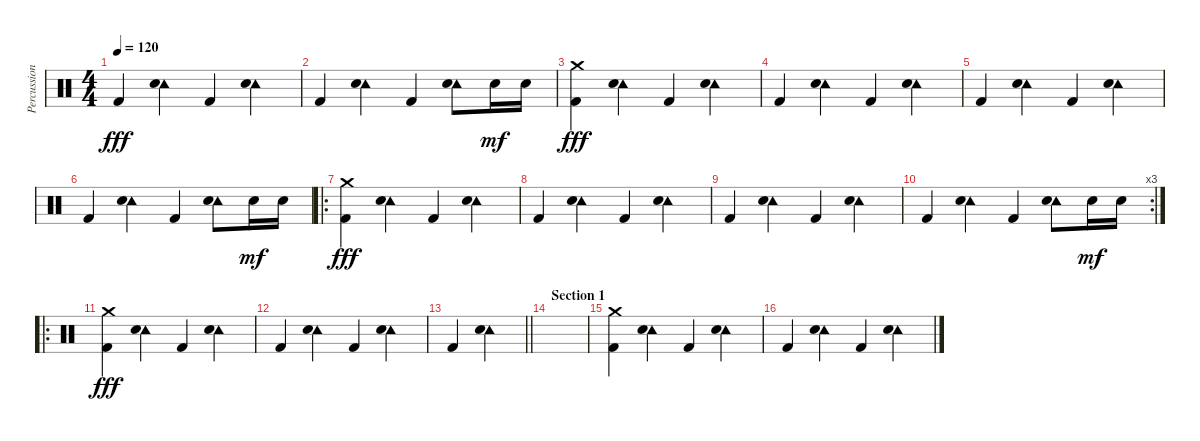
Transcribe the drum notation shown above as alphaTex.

\track ("Percussion" "Percussion") {instrument percussion}
\staff {score}
\articulation defaults
\ts (4 4)
\tempo 120
\clef neutral
\ks c "Kick (hit) 2".4{dy fff}
("Tambourine (hit)" "Electric Snare (hit)").4 "Kick (hit) 2".4 ("Tambourine (hit)" "Electric Snare (hit)").4 |
"Kick (hit) 2".4 ("Tambourine (hit)" "Electric Snare (hit)").4 "Kick (hit) 2".4 ("Tambourine (hit)" "Electric Snare (hit)").8 "Electric Snare (hit)".16{dy mf} "Electric Snare (hit)".16 |
("Crash medium (hit)" "Kick (hit) 2").4{dy fff} ("Tambourine (hit)" "Electric Snare (hit)").4 "Kick (hit) 2".4 ("Tambourine (hit)" "Electric Snare (hit)").4 |
"Kick (hit) 2".4 ("Tambourine (hit)" "Electric Snare (hit)").4 "Kick (hit) 2".4 ("Tambourine (hit)" "Electric Snare (hit)").4 |
"Kick (hit) 2".4 ("Tambourine (hit)" "Electric Snare (hit)").4 "Kick (hit) 2".4 ("Tambourine (hit)" "Electric Snare (hit)").4 |
"Kick (hit) 2".4 ("Tambourine (hit)" "Electric Snare (hit)").4 "Kick (hit) 2".4 ("Tambourine (hit)" "Electric Snare (hit)").8 "Electric Snare (hit)".16{dy mf} "Electric Snare (hit)".16 |
\ro
("Crash medium (hit)" "Kick (hit) 2").4{dy fff} ("Tambourine (hit)" "Electric Snare (hit)").4 "Kick (hit) 2".4 ("Tambourine (hit)" "Electric Snare (hit)").4 |
"Kick (hit) 2".4 ("Tambourine (hit)" "Electric Snare (hit)").4 "Kick (hit) 2".4 ("Tambourine (hit)" "Electric Snare (hit)").4 |
"Kick (hit) 2".4 ("Tambourine (hit)" "Electric Snare (hit)").4 "Kick (hit) 2".4 ("Tambourine (hit)" "Electric Snare (hit)").4 |
\rc 3 "Kick (hit) 2".4
("Tambourine (hit)" "Electric Snare (hit)").4 "Kick (hit) 2".4 ("Tambourine (hit)" "Electric Snare (hit)").8 "Electric Snare (hit)".16{dy mf} "Electric Snare (hit)".16 |
\ro
("Crash medium (hit)" "Kick (hit) 2").4{dy fff} ("Tambourine (hit)" "Electric Snare (hit)").4 "Kick (hit) 2".4 ("Tambourine (hit)" "Electric Snare (hit)").4 |
"Kick (hit) 2".4 ("Tambourine (hit)" "Electric Snare (hit)").4 "Kick (hit) 2".4 ("Tambourine (hit)" "Electric Snare (hit)").4 |
\barLineRight lightlight "Kick (hit) 2".4
("Tambourine (hit)" "Electric Snare (hit)").4 |
\section ("" "Section 1")
|
("Crash medium (hit)" "Kick (hit) 2").4 ("Tambourine (hit)" "Electric Snare (hit)").4 "Kick (hit) 2".4 ("Tambourine (hit)" "Electric Snare (hit)").4 |
"Kick (hit) 2".4 ("Tambourine (hit)" "Electric Snare (hit)").4 "Kick (hit) 2".4 ("Tambourine (hit)" "Electric Snare (hit)").4
